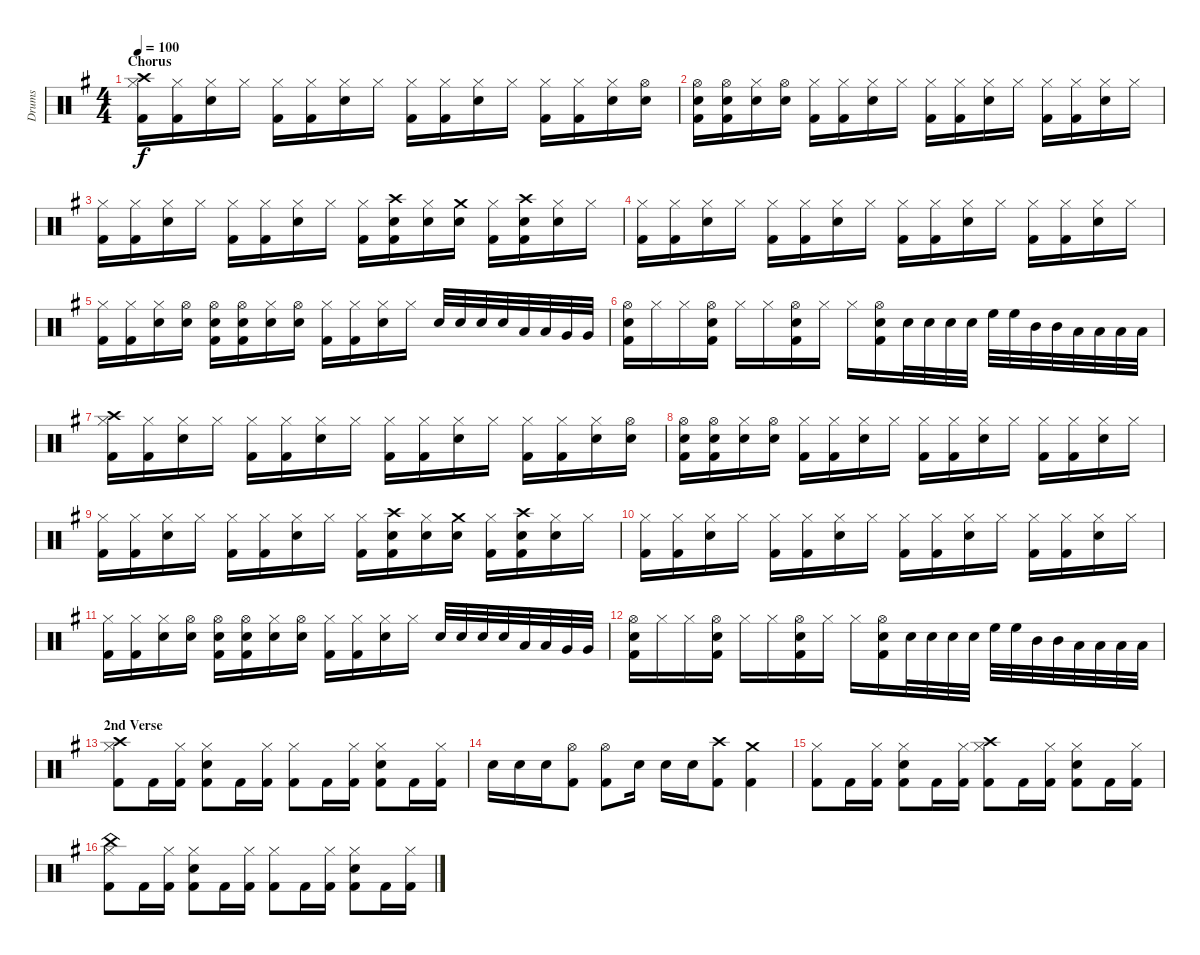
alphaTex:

\track ("Drums" "Drums") {instrument percussion}
\staff {score}
\articulation defaults
\ts (4 4)
\section ("" "Chorus")
\tempo 100
\clef neutral
\ks eminor
("Hi-Hat (closed)" "Crash high (hit)" "Kick (hit) 2").16{dy f} ("Hi-Hat (closed)" "Kick (hit) 2").16 ("Hi-Hat (closed)" "Snare (hit) 2").16 "Hi-Hat (closed)".16 ("Hi-Hat (closed)" "Kick (hit) 2").16 ("Hi-Hat (closed)" "Kick (hit) 2").16 ("Hi-Hat (closed)" "Snare (hit) 2").16 "Hi-Hat (closed)".16 ("Hi-Hat (closed)" "Kick (hit) 2").16 ("Hi-Hat (closed)" "Kick (hit) 2").16 ("Hi-Hat (closed)" "Snare (hit) 2").16 "Hi-Hat (closed)".16 ("Hi-Hat (closed)" "Kick (hit) 2").16 ("Hi-Hat (closed)" "Kick (hit) 2").16 ("Hi-Hat (closed)" "Snare (hit) 2").16 ("Hi-Hat (open)" "Snare (hit) 2").16 |
("Hi-Hat (open)" "Snare (hit) 2" "Kick (hit) 2").16 ("Hi-Hat (open)" "Snare (hit) 2" "Kick (hit) 2").16 ("Hi-Hat (closed)" "Snare (hit) 2").16 ("Hi-Hat (open)" "Snare (hit) 2").16 ("Hi-Hat (closed)" "Kick (hit) 2").16 ("Hi-Hat (closed)" "Kick (hit) 2").16 ("Hi-Hat (closed)" "Snare (hit) 2").16 "Hi-Hat (closed)".16 ("Hi-Hat (closed)" "Kick (hit) 2").16 ("Hi-Hat (closed)" "Kick (hit) 2").16 ("Hi-Hat (closed)" "Snare (hit) 2").16 "Hi-Hat (closed)".16 ("Hi-Hat (closed)" "Kick (hit) 2").16 ("Hi-Hat (closed)" "Kick (hit) 2").16 ("Hi-Hat (closed)" "Snare (hit) 2").16 "Hi-Hat (closed)".16 |
("Hi-Hat (closed)" "Kick (hit) 2").16 ("Hi-Hat (closed)" "Kick (hit) 2").16 ("Hi-Hat (closed)" "Snare (hit) 2").16 "Hi-Hat (closed)".16 ("Hi-Hat (closed)" "Kick (hit) 2").16 ("Hi-Hat (closed)" "Kick (hit) 2").16 ("Hi-Hat (closed)" "Snare (hit) 2").16 "Hi-Hat (closed)".16 ("Hi-Hat (closed)" "Kick (hit) 2").16 ("Crash high (hit)" "Snare (hit) 2" "Kick (hit) 2").16 ("Hi-Hat (closed)" "Snare (hit) 2").16 ("Crash medium (hit)" "Snare (hit) 2").16 ("Hi-Hat (closed)" "Kick (hit) 2").16 ("Crash high (hit)" "Snare (hit) 2" "Kick (hit) 2").16 ("Hi-Hat (closed)" "Snare (hit) 2").16 "Hi-Hat (closed)".16 |
("Hi-Hat (closed)" "Kick (hit) 2").16 ("Hi-Hat (closed)" "Kick (hit) 2").16 ("Hi-Hat (closed)" "Snare (hit) 2").16 "Hi-Hat (closed)".16 ("Hi-Hat (closed)" "Kick (hit) 2").16 ("Hi-Hat (closed)" "Kick (hit) 2").16 ("Hi-Hat (closed)" "Snare (hit) 2").16 "Hi-Hat (closed)".16 ("Hi-Hat (closed)" "Kick (hit) 2").16 ("Hi-Hat (closed)" "Kick (hit) 2").16 ("Hi-Hat (closed)" "Snare (hit) 2").16 "Hi-Hat (closed)".16 ("Hi-Hat (closed)" "Kick (hit) 2").16 ("Hi-Hat (closed)" "Kick (hit) 2").16 ("Hi-Hat (closed)" "Snare (hit) 2").16 "Hi-Hat (closed)".16 |
("Hi-Hat (closed)" "Kick (hit) 2").16 ("Hi-Hat (closed)" "Kick (hit) 2").16 ("Hi-Hat (closed)" "Snare (hit) 2").16 ("Hi-Hat (open)" "Snare (hit) 2").16 ("Hi-Hat (open)" "Snare (hit) 2" "Kick (hit) 2").16 ("Hi-Hat (open)" "Snare (hit) 2" "Kick (hit) 2").16 ("Hi-Hat (closed)" "Snare (hit) 2").16 ("Hi-Hat (open)" "Snare (hit) 2").16 ("Hi-Hat (closed)" "Kick (hit) 2").16 ("Hi-Hat (closed)" "Kick (hit) 2").16 ("Hi-Hat (closed)" "Snare (hit) 2").16 "Hi-Hat (closed)".16 "Snare (hit) 2".32 "Snare (hit) 2".32 "Snare (hit) 2".32 "Snare (hit) 2".32 "Low Floor Tom (hit)".32 "Low Floor Tom (hit)".32 "Very Low Tom (hit)".32 "Very Low Tom (hit)".32 |
("Hi-Hat (open)" "Snare (hit) 2" "Kick (hit) 2").16 "Hi-Hat (closed)".16 "Hi-Hat (closed)".16 ("Hi-Hat (open)" "Snare (hit) 2" "Kick (hit) 2").16 "Hi-Hat (closed)".16 "Hi-Hat (closed)".16 ("Hi-Hat (open)" "Snare (hit) 2" "Kick (hit) 2").16 "Hi-Hat (closed)".16 "Hi-Hat (closed)".16 ("Hi-Hat (open)" "Snare (hit) 2" "Kick (hit) 2").16 "Snare (hit) 2".32 "Snare (hit) 2".32 "Snare (hit) 2".32 "Snare (hit) 2".32 "High Floor Tom (hit)".32 "High Floor Tom (hit)".32 "Mid Tom (hit)".32 "Mid Tom (hit)".32 "Low Tom (hit)".32 "Low Tom (hit)".32 "Low Floor Tom (hit)".32 "Low Floor Tom (hit)".32 |
("Hi-Hat (closed)" "Crash high (hit)" "Kick (hit) 2").16 ("Hi-Hat (closed)" "Kick (hit) 2").16 ("Hi-Hat (closed)" "Snare (hit) 2").16 "Hi-Hat (closed)".16 ("Hi-Hat (closed)" "Kick (hit) 2").16 ("Hi-Hat (closed)" "Kick (hit) 2").16 ("Hi-Hat (closed)" "Snare (hit) 2").16 "Hi-Hat (closed)".16 ("Hi-Hat (closed)" "Kick (hit) 2").16 ("Hi-Hat (closed)" "Kick (hit) 2").16 ("Hi-Hat (closed)" "Snare (hit) 2").16 "Hi-Hat (closed)".16 ("Hi-Hat (closed)" "Kick (hit) 2").16 ("Hi-Hat (closed)" "Kick (hit) 2").16 ("Hi-Hat (closed)" "Snare (hit) 2").16 ("Hi-Hat (open)" "Snare (hit) 2").16 |
("Hi-Hat (open)" "Snare (hit) 2" "Kick (hit) 2").16 ("Hi-Hat (open)" "Snare (hit) 2" "Kick (hit) 2").16 ("Hi-Hat (closed)" "Snare (hit) 2").16 ("Hi-Hat (open)" "Snare (hit) 2").16 ("Hi-Hat (closed)" "Kick (hit) 2").16 ("Hi-Hat (closed)" "Kick (hit) 2").16 ("Hi-Hat (closed)" "Snare (hit) 2").16 "Hi-Hat (closed)".16 ("Hi-Hat (closed)" "Kick (hit) 2").16 ("Hi-Hat (closed)" "Kick (hit) 2").16 ("Hi-Hat (closed)" "Snare (hit) 2").16 "Hi-Hat (closed)".16 ("Hi-Hat (closed)" "Kick (hit) 2").16 ("Hi-Hat (closed)" "Kick (hit) 2").16 ("Hi-Hat (closed)" "Snare (hit) 2").16 "Hi-Hat (closed)".16 |
("Hi-Hat (closed)" "Kick (hit) 2").16 ("Hi-Hat (closed)" "Kick (hit) 2").16 ("Hi-Hat (closed)" "Snare (hit) 2").16 "Hi-Hat (closed)".16 ("Hi-Hat (closed)" "Kick (hit) 2").16 ("Hi-Hat (closed)" "Kick (hit) 2").16 ("Hi-Hat (closed)" "Snare (hit) 2").16 "Hi-Hat (closed)".16 ("Hi-Hat (closed)" "Kick (hit) 2").16 ("Crash high (hit)" "Snare (hit) 2" "Kick (hit) 2").16 ("Hi-Hat (closed)" "Snare (hit) 2").16 ("Crash medium (hit)" "Snare (hit) 2").16 ("Hi-Hat (closed)" "Kick (hit) 2").16 ("Crash high (hit)" "Snare (hit) 2" "Kick (hit) 2").16 ("Hi-Hat (closed)" "Snare (hit) 2").16 "Hi-Hat (closed)".16 |
("Hi-Hat (closed)" "Kick (hit) 2").16 ("Hi-Hat (closed)" "Kick (hit) 2").16 ("Hi-Hat (closed)" "Snare (hit) 2").16 "Hi-Hat (closed)".16 ("Hi-Hat (closed)" "Kick (hit) 2").16 ("Hi-Hat (closed)" "Kick (hit) 2").16 ("Hi-Hat (closed)" "Snare (hit) 2").16 "Hi-Hat (closed)".16 ("Hi-Hat (closed)" "Kick (hit) 2").16 ("Hi-Hat (closed)" "Kick (hit) 2").16 ("Hi-Hat (closed)" "Snare (hit) 2").16 "Hi-Hat (closed)".16 ("Hi-Hat (closed)" "Kick (hit) 2").16 ("Hi-Hat (closed)" "Kick (hit) 2").16 ("Hi-Hat (closed)" "Snare (hit) 2").16 "Hi-Hat (closed)".16 |
("Hi-Hat (closed)" "Kick (hit) 2").16 ("Hi-Hat (closed)" "Kick (hit) 2").16 ("Hi-Hat (closed)" "Snare (hit) 2").16 ("Hi-Hat (open)" "Snare (hit) 2").16 ("Hi-Hat (open)" "Snare (hit) 2" "Kick (hit) 2").16 ("Hi-Hat (open)" "Snare (hit) 2" "Kick (hit) 2").16 ("Hi-Hat (closed)" "Snare (hit) 2").16 ("Hi-Hat (open)" "Snare (hit) 2").16 ("Hi-Hat (closed)" "Kick (hit) 2").16 ("Hi-Hat (closed)" "Kick (hit) 2").16 ("Hi-Hat (closed)" "Snare (hit) 2").16 "Hi-Hat (closed)".16 "Snare (hit) 2".32 "Snare (hit) 2".32 "Snare (hit) 2".32 "Snare (hit) 2".32 "Low Floor Tom (hit)".32 "Low Floor Tom (hit)".32 "Very Low Tom (hit)".32 "Very Low Tom (hit)".32 |
("Hi-Hat (open)" "Snare (hit) 2" "Kick (hit) 2").16 "Hi-Hat (closed)".16 "Hi-Hat (closed)".16 ("Hi-Hat (open)" "Snare (hit) 2" "Kick (hit) 2").16 "Hi-Hat (closed)".16 "Hi-Hat (closed)".16 ("Hi-Hat (open)" "Snare (hit) 2" "Kick (hit) 2").16 "Hi-Hat (closed)".16 "Hi-Hat (closed)".16 ("Hi-Hat (open)" "Snare (hit) 2" "Kick (hit) 2").16 "Snare (hit) 2".32 "Snare (hit) 2".32 "Snare (hit) 2".32 "Snare (hit) 2".32 "High Floor Tom (hit)".32 "High Floor Tom (hit)".32 "Mid Tom (hit)".32 "Mid Tom (hit)".32 "Low Tom (hit)".32 "Low Tom (hit)".32 "Low Floor Tom (hit)".32 "Low Floor Tom (hit)".32 |
\section ("" "2nd Verse")
("Hi-Hat (closed)" "Kick (hit) 2" "Crash high (hit)").8 "Kick (hit) 2".16 ("Hi-Hat (closed)" "Kick (hit) 2").16 ("Hi-Hat (closed)" "Kick (hit) 2" "Snare (hit) 2").8 "Kick (hit) 2".16 ("Hi-Hat (closed)" "Kick (hit) 2").16 ("Hi-Hat (closed)" "Kick (hit) 2").8 "Kick (hit) 2".16 ("Hi-Hat (closed)" "Kick (hit) 2").16 ("Hi-Hat (closed)" "Kick (hit) 2" "Snare (hit) 2").8 "Kick (hit) 2".16 ("Hi-Hat (closed)" "Kick (hit) 2").16 |
"Snare (hit) 2".16 "Snare (hit) 2".16 "Snare (hit) 2".16 ("Hi-Hat (open)" "Kick (hit) 2").8 ("Hi-Hat (open)" "Kick (hit) 2").8 "Snare (hit) 2".16 "Snare (hit) 2".16 "Snare (hit) 2".16 ("Crash high (hit)" "Kick (hit) 2").8 ("Crash medium (hit)" "Kick (hit) 2").4 |
("Hi-Hat (closed)" "Kick (hit) 2").8 "Kick (hit) 2".16 ("Hi-Hat (closed)" "Kick (hit) 2").16 ("Hi-Hat (closed)" "Kick (hit) 2" "Snare (hit) 2").8 "Kick (hit) 2".16 ("Hi-Hat (closed)" "Kick (hit) 2").16 ("Hi-Hat (closed)" "Kick (hit) 2" "Crash high (hit)").8 "Kick (hit) 2".16 ("Hi-Hat (closed)" "Kick (hit) 2").16 ("Hi-Hat (closed)" "Kick (hit) 2" "Snare (hit) 2").8 "Kick (hit) 2".16 ("Hi-Hat (closed)" "Kick (hit) 2").16 |
("Hi-Hat (closed)" "Kick (hit) 2" "China (hit)").8 "Kick (hit) 2".16 ("Hi-Hat (closed)" "Kick (hit) 2").16 ("Hi-Hat (closed)" "Kick (hit) 2" "Snare (hit) 2").8 "Kick (hit) 2".16 ("Hi-Hat (closed)" "Kick (hit) 2").16 ("Hi-Hat (closed)" "Kick (hit) 2").8 "Kick (hit) 2".16 ("Hi-Hat (closed)" "Kick (hit) 2").16 ("Hi-Hat (closed)" "Kick (hit) 2" "Snare (hit) 2").8 "Kick (hit) 2".16 ("Hi-Hat (closed)" "Kick (hit) 2").16
